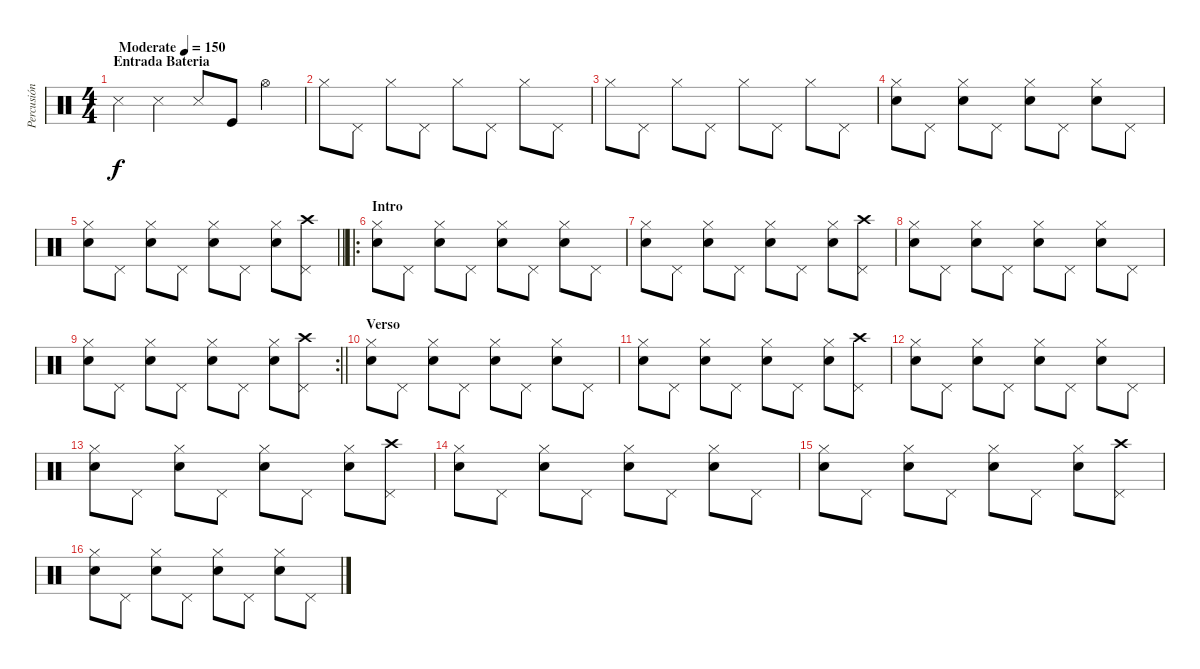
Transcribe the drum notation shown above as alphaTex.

\track ("Percusión" "Percusión") {instrument percussion}
\staff {score}
\articulation defaults
\ts (4 4)
\section ("" "Entrada Bateria")
\tempo (150 "Moderate")
\clef neutral
\ks c "Snare (side stick) 3".4{dy f} "Snare (side stick) 3".4 "Snare (side stick) 3".8 "Kick (hit)".8 "Hi-Hat (open)".4
|
"Hi-Hat (closed)".8 "Pedal Hi-Hat (hit)".8 "Hi-Hat (closed)".8 "Pedal Hi-Hat (hit)".8 "Hi-Hat (closed)".8 "Pedal Hi-Hat (hit)".8 "Hi-Hat (closed)".8 "Pedal Hi-Hat (hit)".8 |
"Hi-Hat (closed)".8 "Pedal Hi-Hat (hit)".8 "Hi-Hat (closed)".8 "Pedal Hi-Hat (hit)".8 "Hi-Hat (closed)".8 "Pedal Hi-Hat (hit)".8 "Hi-Hat (closed)".8 "Pedal Hi-Hat (hit)".8 |
("Hand Clap (hit)" "Hi-Hat (closed)").8 "Pedal Hi-Hat (hit)".8 ("Hand Clap (hit)" "Hi-Hat (closed)").8 "Pedal Hi-Hat (hit)".8 ("Hand Clap (hit)" "Hi-Hat (closed)").8 "Pedal Hi-Hat (hit)".8 ("Hand Clap (hit)" "Hi-Hat (closed)").8 "Pedal Hi-Hat (hit)".8 |
\barLineRight lightlight
("Hand Clap (hit)" "Hi-Hat (closed)").8 "Pedal Hi-Hat (hit)".8 ("Hand Clap (hit)" "Hi-Hat (closed)").8 "Pedal Hi-Hat (hit)".8 ("Hand Clap (hit)" "Hi-Hat (closed)").8 "Pedal Hi-Hat (hit)".8 ("Hand Clap (hit)" "Hi-Hat (closed)").8 ("Crash high (hit)" "Pedal Hi-Hat (hit)").8 |
\ro
\section ("" "Intro")
("Hand Clap (hit)" "Hi-Hat (closed)").8 "Pedal Hi-Hat (hit)".8 ("Hand Clap (hit)" "Hi-Hat (closed)").8 "Pedal Hi-Hat (hit)".8 ("Hand Clap (hit)" "Hi-Hat (closed)").8 "Pedal Hi-Hat (hit)".8 ("Hand Clap (hit)" "Hi-Hat (closed)").8 "Pedal Hi-Hat (hit)".8 |
("Hand Clap (hit)" "Hi-Hat (closed)").8 "Pedal Hi-Hat (hit)".8 ("Hand Clap (hit)" "Hi-Hat (closed)").8 "Pedal Hi-Hat (hit)".8 ("Hand Clap (hit)" "Hi-Hat (closed)").8 "Pedal Hi-Hat (hit)".8 ("Hand Clap (hit)" "Hi-Hat (closed)").8 ("Crash high (hit)" "Pedal Hi-Hat (hit)").8 |
("Hand Clap (hit)" "Hi-Hat (closed)").8 "Pedal Hi-Hat (hit)".8 ("Hand Clap (hit)" "Hi-Hat (closed)").8 "Pedal Hi-Hat (hit)".8 ("Hand Clap (hit)" "Hi-Hat (closed)").8 "Pedal Hi-Hat (hit)".8 ("Hand Clap (hit)" "Hi-Hat (closed)").8 "Pedal Hi-Hat (hit)".8 |
\rc 2
\barLineRight lightlight
("Hand Clap (hit)" "Hi-Hat (closed)").8 "Pedal Hi-Hat (hit)".8 ("Hand Clap (hit)" "Hi-Hat (closed)").8 "Pedal Hi-Hat (hit)".8 ("Hand Clap (hit)" "Hi-Hat (closed)").8 "Pedal Hi-Hat (hit)".8 ("Hand Clap (hit)" "Hi-Hat (closed)").8 ("Crash high (hit)" "Pedal Hi-Hat (hit)").8 |
\section ("" "Verso")
("Hand Clap (hit)" "Hi-Hat (closed)").8 "Pedal Hi-Hat (hit)".8 ("Hand Clap (hit)" "Hi-Hat (closed)").8 "Pedal Hi-Hat (hit)".8 ("Hand Clap (hit)" "Hi-Hat (closed)").8 "Pedal Hi-Hat (hit)".8 ("Hand Clap (hit)" "Hi-Hat (closed)").8 "Pedal Hi-Hat (hit)".8 |
("Hand Clap (hit)" "Hi-Hat (closed)").8 "Pedal Hi-Hat (hit)".8 ("Hand Clap (hit)" "Hi-Hat (closed)").8 "Pedal Hi-Hat (hit)".8 ("Hand Clap (hit)" "Hi-Hat (closed)").8 "Pedal Hi-Hat (hit)".8 ("Hand Clap (hit)" "Hi-Hat (closed)").8 ("Crash high (hit)" "Pedal Hi-Hat (hit)").8 |
("Hand Clap (hit)" "Hi-Hat (closed)").8 "Pedal Hi-Hat (hit)".8 ("Hand Clap (hit)" "Hi-Hat (closed)").8 "Pedal Hi-Hat (hit)".8 ("Hand Clap (hit)" "Hi-Hat (closed)").8 "Pedal Hi-Hat (hit)".8 ("Hand Clap (hit)" "Hi-Hat (closed)").8 "Pedal Hi-Hat (hit)".8 |
("Hand Clap (hit)" "Hi-Hat (closed)").8 "Pedal Hi-Hat (hit)".8 ("Hand Clap (hit)" "Hi-Hat (closed)").8 "Pedal Hi-Hat (hit)".8 ("Hand Clap (hit)" "Hi-Hat (closed)").8 "Pedal Hi-Hat (hit)".8 ("Hand Clap (hit)" "Hi-Hat (closed)").8 ("Crash high (hit)" "Pedal Hi-Hat (hit)").8 |
("Hand Clap (hit)" "Hi-Hat (closed)").8 "Pedal Hi-Hat (hit)".8 ("Hand Clap (hit)" "Hi-Hat (closed)").8 "Pedal Hi-Hat (hit)".8 ("Hand Clap (hit)" "Hi-Hat (closed)").8 "Pedal Hi-Hat (hit)".8 ("Hand Clap (hit)" "Hi-Hat (closed)").8 "Pedal Hi-Hat (hit)".8 |
("Hand Clap (hit)" "Hi-Hat (closed)").8 "Pedal Hi-Hat (hit)".8 ("Hand Clap (hit)" "Hi-Hat (closed)").8 "Pedal Hi-Hat (hit)".8 ("Hand Clap (hit)" "Hi-Hat (closed)").8 "Pedal Hi-Hat (hit)".8 ("Hand Clap (hit)" "Hi-Hat (closed)").8 ("Crash high (hit)" "Pedal Hi-Hat (hit)").8 |
("Hand Clap (hit)" "Hi-Hat (closed)").8 "Pedal Hi-Hat (hit)".8 ("Hand Clap (hit)" "Hi-Hat (closed)").8 "Pedal Hi-Hat (hit)".8 ("Hand Clap (hit)" "Hi-Hat (closed)").8 "Pedal Hi-Hat (hit)".8 ("Hand Clap (hit)" "Hi-Hat (closed)").8 "Pedal Hi-Hat (hit)".8
